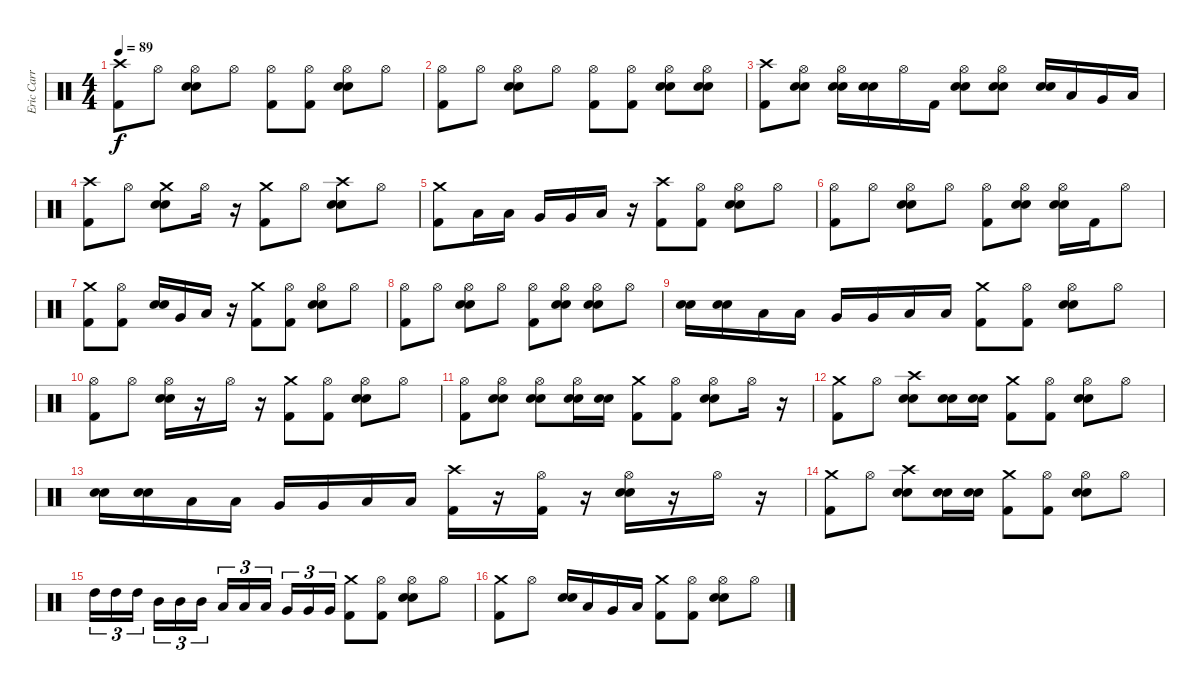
\track ("Eric Carr (The Fox)" "Eric Carr ") {instrument percussion}
\staff {score}
\articulation defaults
\ts (4 4)
\tempo 89
\clef neutral
\ks c
("Crash high (hit)" "Kick (hit) 2").8{dy f} "Hi-Hat (open)".8 ("Electric Snare (hit)" "Snare (hit) 2" "Hi-Hat (open)").8 "Hi-Hat (open)".8 ("Kick (hit) 2" "Hi-Hat (open)").8 ("Kick (hit) 2" "Hi-Hat (open)").8 ("Electric Snare (hit)" "Snare (hit) 2" "Hi-Hat (open)").8 "Hi-Hat (open)".8 |
("Kick (hit) 2" "Hi-Hat (open)").8 "Hi-Hat (open)".8 ("Electric Snare (hit)" "Snare (hit) 2" "Hi-Hat (open)").8 "Hi-Hat (open)".8 ("Kick (hit) 2" "Hi-Hat (open)").8 ("Kick (hit) 2" "Hi-Hat (open)").8 ("Electric Snare (hit)" "Snare (hit) 2" "Hi-Hat (open)").8 ("Electric Snare (hit)" "Snare (hit) 2" "Hi-Hat (open)").8 |
("Crash high (hit)" "Kick (hit) 2").8 ("Electric Snare (hit)" "Snare (hit) 2" "Hi-Hat (open)").8 ("Electric Snare (hit)" "Snare (hit) 2" "Hi-Hat (open)").16 ("Electric Snare (hit)" "Snare (hit) 2").16 "Hi-Hat (open)".16 "Kick (hit) 2".16 ("Electric Snare (hit)" "Snare (hit) 2" "Hi-Hat (open)").8 ("Electric Snare (hit)" "Snare (hit) 2" "Hi-Hat (open)").8 ("Electric Snare (hit)" "Snare (hit) 2").16 "Low Tom (hit)".16 "Very Low Tom (hit)".16 "Low Floor Tom (hit)".16 |
("Crash high (hit)" "Kick (hit) 2").8 "Hi-Hat (open)".8 ("Electric Snare (hit)" "Crash medium (hit)" "Snare (hit) 2").8 "Hi-Hat (open)".16 r.16 ("Crash medium (hit)" "Kick (hit) 2").8 "Hi-Hat (open)".8 ("Electric Snare (hit)" "Crash high (hit)" "Snare (hit) 2").8 "Hi-Hat (open)".8 |
("Crash medium (hit)" "Kick (hit) 2").8 "Low Tom (hit)".16 "Low Tom (hit)".16 "Very Low Tom (hit)".16 "Very Low Tom (hit)".16 "Low Floor Tom (hit)".16 r.16 ("Crash high (hit)" "Kick (hit) 2").8 ("Kick (hit) 2" "Hi-Hat (open)").8 ("Electric Snare (hit)" "Snare (hit) 2" "Hi-Hat (open)").8 "Hi-Hat (open)".8 |
("Kick (hit) 2" "Hi-Hat (open)").8 "Hi-Hat (open)".8 ("Electric Snare (hit)" "Snare (hit) 2" "Hi-Hat (open)").8 "Hi-Hat (open)".8 ("Kick (hit) 2" "Hi-Hat (open)").8 ("Electric Snare (hit)" "Snare (hit) 2" "Hi-Hat (open)").8 ("Electric Snare (hit)" "Snare (hit) 2" "Hi-Hat (open)").16 "Kick (hit) 2".16 "Hi-Hat (open)".8 |
("Crash medium (hit)" "Kick (hit) 2").8 ("Kick (hit) 2" "Hi-Hat (open)").8 ("Electric Snare (hit)" "Snare (hit) 2").16 "Very Low Tom (hit)".16 "Low Floor Tom (hit)".16 r.16 ("Crash medium (hit)" "Kick (hit) 2").8 ("Kick (hit) 2" "Hi-Hat (open)").8 ("Electric Snare (hit)" "Snare (hit) 2" "Hi-Hat (open)").8 "Hi-Hat (open)".8 |
("Kick (hit) 2" "Hi-Hat (open)").8 "Hi-Hat (open)".8 ("Electric Snare (hit)" "Snare (hit) 2" "Hi-Hat (open)").8 "Hi-Hat (open)".8 ("Hi-Hat (open)" "Kick (hit) 2").8 ("Electric Snare (hit)" "Snare (hit) 2" "Hi-Hat (open)").8 ("Electric Snare (hit)" "Hi-Hat (open)" "Snare (hit) 2").8 "Hi-Hat (open)".8 |
("Electric Snare (hit)" "Snare (hit) 2").16 ("Electric Snare (hit)" "Snare (hit) 2").16 "Low Tom (hit)".16 "Low Tom (hit)".16 "Very Low Tom (hit)".16 "Very Low Tom (hit)".16 "Low Floor Tom (hit)".16 "Low Floor Tom (hit)".16 ("Crash medium (hit)" "Kick (hit) 2").8 ("Kick (hit) 2" "Hi-Hat (open)").8 ("Electric Snare (hit)" "Hi-Hat (open)" "Snare (hit) 2").8 "Hi-Hat (open)".8 |
("Hi-Hat (open)" "Kick (hit) 2").8 "Hi-Hat (open)".8 ("Electric Snare (hit)" "Hi-Hat (open)" "Snare (hit) 2").16 r.16 "Hi-Hat (open)".16 r.16 ("Crash medium (hit)" "Kick (hit) 2").8 ("Kick (hit) 2" "Hi-Hat (open)").8 ("Electric Snare (hit)" "Snare (hit) 2" "Hi-Hat (open)").8 "Hi-Hat (open)".8 |
("Kick (hit) 2" "Hi-Hat (open)").8 ("Electric Snare (hit)" "Snare (hit) 2" "Hi-Hat (open)").8 ("Electric Snare (hit)" "Snare (hit) 2" "Hi-Hat (open)").8 ("Electric Snare (hit)" "Snare (hit) 2" "Hi-Hat (open)").16 ("Electric Snare (hit)" "Snare (hit) 2").16 ("Kick (hit) 2" "Crash medium (hit)").8 ("Kick (hit) 2" "Hi-Hat (open)").8 ("Electric Snare (hit)" "Snare (hit) 2" "Hi-Hat (open)").8 "Hi-Hat (open)".16 r.16 |
("Crash medium (hit)" "Kick (hit) 2").8 "Hi-Hat (open)".8 ("Electric Snare (hit)" "Crash high (hit)" "Snare (hit) 2").8 ("Electric Snare (hit)" "Snare (hit) 2").16 ("Electric Snare (hit)" "Snare (hit) 2").16 ("Crash medium (hit)" "Kick (hit) 2").8 ("Kick (hit) 2" "Hi-Hat (open)").8 ("Electric Snare (hit)" "Snare (hit) 2" "Hi-Hat (open)").8 "Hi-Hat (open)".8 |
("Electric Snare (hit)" "Snare (hit) 2").16 ("Electric Snare (hit)" "Snare (hit) 2").16 "Low Tom (hit)".16 "Low Tom (hit)".16 "Very Low Tom (hit)".16 "Very Low Tom (hit)".16 "Low Floor Tom (hit)".16 "Low Floor Tom (hit)".16 ("Crash high (hit)" "Kick (hit) 2").16 r.16 ("Hi-Hat (open)" "Kick (hit) 2").16 r.16 ("Electric Snare (hit)" "Snare (hit) 2" "Hi-Hat (open)").16 r.16 "Hi-Hat (open)".16 r.16 |
("Crash medium (hit)" "Kick (hit) 2").8 "Hi-Hat (open)".8 ("Electric Snare (hit)" "Crash high (hit)" "Snare (hit) 2").8 ("Electric Snare (hit)" "Snare (hit) 2").16 ("Electric Snare (hit)" "Snare (hit) 2").16 ("Crash medium (hit)" "Kick (hit) 2").8 ("Kick (hit) 2" "Hi-Hat (open)").8 ("Electric Snare (hit)" "Snare (hit) 2" "Hi-Hat (open)").8 "Hi-Hat (open)".8 |
"High Tom (hit)".16{tu (3 2)} "High Tom (hit)".16{tu (3 2)} "High Tom (hit)".16{tu (3 2)} "Mid Tom (hit)".16{tu (3 2)} "Mid Tom (hit)".16{tu (3 2)} "Mid Tom (hit)".16{tu (3 2)} "Low Tom (hit)".16{tu (3 2)} "Low Tom (hit)".16{tu (3 2)} "Low Tom (hit)".16{tu (3 2)} "Very Low Tom (hit)".16{tu (3 2)} "Very Low Tom (hit)".16{tu (3 2)} "Very Low Tom (hit)".16{tu (3 2)} ("Crash medium (hit)" "Kick (hit) 2").8 ("Kick (hit) 2" "Hi-Hat (open)").8 ("Electric Snare (hit)" "Snare (hit) 2" "Hi-Hat (open)").8 "Hi-Hat (open)".8 |
("Crash medium (hit)" "Kick (hit) 2").8 "Hi-Hat (open)".8 ("Electric Snare (hit)" "Snare (hit) 2").16 "Low Tom (hit)".16 "Very Low Tom (hit)".16 "Low Floor Tom (hit)".16 ("Crash medium (hit)" "Kick (hit) 2").8 ("Kick (hit) 2" "Hi-Hat (open)").8 ("Electric Snare (hit)" "Snare (hit) 2" "Hi-Hat (open)").8 "Hi-Hat (open)".8
